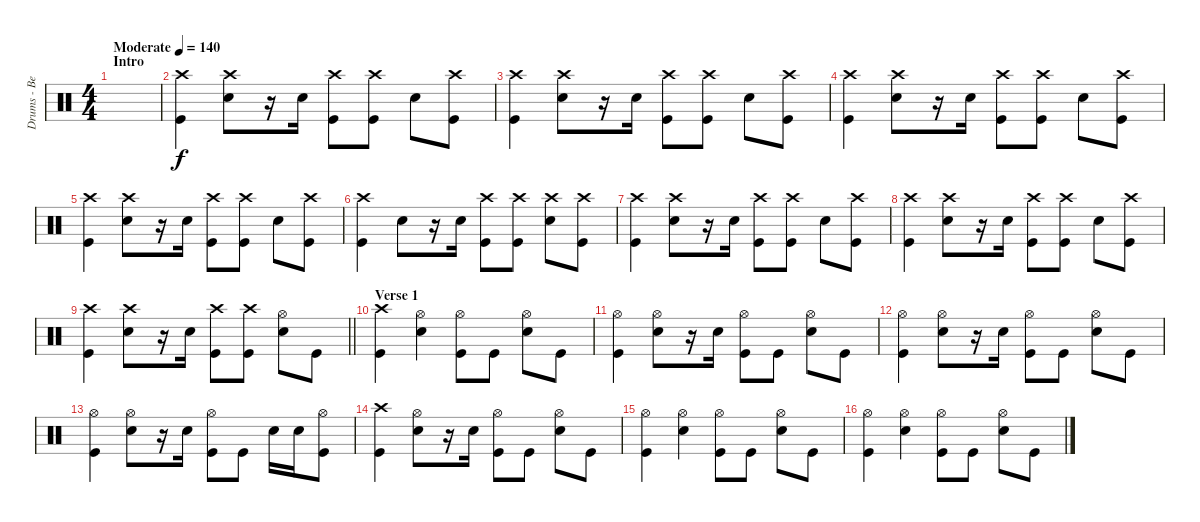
\track ("Drums - Ben Johnston" "Drums - Be") {instrument percussion}
\staff {score}
\articulation defaults
\ts (4 4)
\section ("" "Intro")
\tempo (140 "Moderate")
\clef neutral
\ks c
|
("Crash high (hit)" "Kick (hit)").4 ("Crash high (hit)" "Snare (hit) 2").8 r.16 "Snare (hit) 2".16 ("Crash high (hit)" "Kick (hit)").8 ("Crash high (hit)" "Kick (hit)").8 "Snare (hit) 2".8 ("Crash high (hit)" "Kick (hit)").8 |
("Crash high (hit)" "Kick (hit)").4 ("Crash high (hit)" "Snare (hit) 2").8 r.16 "Snare (hit) 2".16 ("Crash high (hit)" "Kick (hit)").8 ("Crash high (hit)" "Kick (hit)").8 "Snare (hit) 2".8 ("Crash high (hit)" "Kick (hit)").8 |
("Crash high (hit)" "Kick (hit)").4 ("Crash high (hit)" "Snare (hit) 2").8 r.16 "Snare (hit) 2".16 ("Crash high (hit)" "Kick (hit)").8 ("Crash high (hit)" "Kick (hit)").8 "Snare (hit) 2".8 ("Crash high (hit)" "Kick (hit)").8 |
("Crash high (hit)" "Kick (hit)").4 ("Crash high (hit)" "Snare (hit) 2").8 r.16 "Snare (hit) 2".16 ("Crash high (hit)" "Kick (hit)").8 ("Crash high (hit)" "Kick (hit)").8 "Snare (hit) 2".8 ("Crash high (hit)" "Kick (hit)").8 |
("Crash high (hit)" "Kick (hit)").4 "Snare (hit) 2".8 r.16 "Snare (hit) 2".16 ("Crash high (hit)" "Kick (hit)").8 ("Crash high (hit)" "Kick (hit)").8 ("Crash high (hit)" "Snare (hit) 2").8 ("Crash high (hit)" "Kick (hit)").8 |
("Crash high (hit)" "Kick (hit)").4 ("Crash high (hit)" "Snare (hit) 2").8 r.16 "Snare (hit) 2".16 ("Crash high (hit)" "Kick (hit)").8 ("Crash high (hit)" "Kick (hit)").8 "Snare (hit) 2".8 ("Crash high (hit)" "Kick (hit)").8 |
("Crash high (hit)" "Kick (hit)").4 ("Crash high (hit)" "Snare (hit) 2").8 r.16 "Snare (hit) 2".16 ("Crash high (hit)" "Kick (hit)").8 ("Crash high (hit)" "Kick (hit)").8 "Snare (hit) 2".8 ("Crash high (hit)" "Kick (hit)").8 |
\barLineRight lightlight
("Crash high (hit)" "Kick (hit)").4 ("Crash high (hit)" "Snare (hit) 2").8 r.16 "Snare (hit) 2".16 ("Crash high (hit)" "Kick (hit)").8 ("Crash high (hit)" "Kick (hit)").8 ("Hi-Hat (open)" "Snare (hit) 2").8 "Kick (hit)".8 |
\section ("" "Verse 1")
("Crash high (hit)" "Kick (hit)").4 ("Hi-Hat (open)" "Snare (hit) 2").4 ("Hi-Hat (open)" "Kick (hit)").8 "Kick (hit)".8 ("Hi-Hat (open)" "Snare (hit) 2").8 "Kick (hit)".8 |
("Hi-Hat (open)" "Kick (hit)").4 ("Hi-Hat (open)" "Snare (hit) 2").8 r.16 "Snare (hit) 2".16 ("Hi-Hat (open)" "Kick (hit)").8 "Kick (hit)".8 ("Hi-Hat (open)" "Snare (hit) 2").8 "Kick (hit)".8 |
("Hi-Hat (open)" "Kick (hit)").4 ("Hi-Hat (open)" "Snare (hit) 2").8 r.16 "Snare (hit) 2".16 ("Hi-Hat (open)" "Kick (hit)").8 "Kick (hit)".8 ("Hi-Hat (open)" "Snare (hit) 2").8 "Kick (hit)".8 |
("Hi-Hat (open)" "Kick (hit)").4 ("Hi-Hat (open)" "Snare (hit) 2").8 r.16 "Snare (hit) 2".16 ("Hi-Hat (open)" "Kick (hit)").8 "Kick (hit)".8 "Snare (hit) 2".16 "Snare (hit) 2".16 ("Hi-Hat (open)" "Kick (hit)").8 |
("Crash high (hit)" "Kick (hit)").4 ("Hi-Hat (open)" "Snare (hit) 2").8 r.16 "Snare (hit) 2".16 ("Hi-Hat (open)" "Kick (hit)").8 "Kick (hit)".8 ("Hi-Hat (open)" "Snare (hit) 2").8 "Kick (hit)".8 |
("Hi-Hat (open)" "Kick (hit)").4 ("Hi-Hat (open)" "Snare (hit) 2").4 ("Hi-Hat (open)" "Kick (hit)").8 "Kick (hit)".8 ("Hi-Hat (open)" "Snare (hit) 2").8 "Kick (hit)".8 |
("Hi-Hat (open)" "Kick (hit)").4 ("Hi-Hat (open)" "Snare (hit) 2").4 ("Hi-Hat (open)" "Kick (hit)").8 "Kick (hit)".8 ("Hi-Hat (open)" "Snare (hit) 2").8 "Kick (hit)".8
